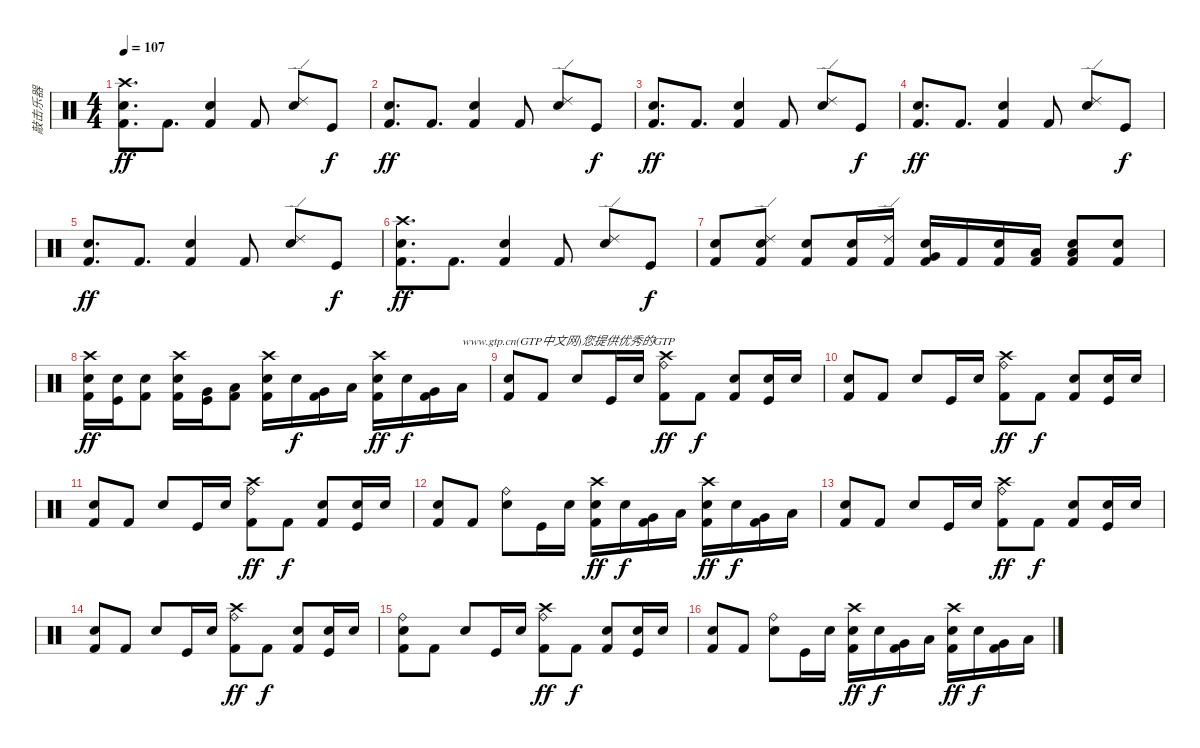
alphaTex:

\track ("敲击乐器" "敲击乐器") {instrument percussion}
\staff {score}
\articulation defaults
\ts (4 4)
\tempo 107
\clef neutral
\ks c
("Crash high (hit)" "Snare (hit) 2" "Kick (hit) 2").8{d dy ff} "Kick (hit) 2".8{d} ("Snare (hit) 2" "Kick (hit) 2").4 "Kick (hit) 2".8 ("Ride (edge) 2" "Electric Snare (hit)").8 "Kick (hit)".8{dy f} |
("Snare (hit) 2" "Kick (hit) 2").8{d dy ff} "Kick (hit) 2".8{d} ("Snare (hit) 2" "Kick (hit) 2").4 "Kick (hit) 2".8 ("Ride (edge) 2" "Electric Snare (hit)").8 "Kick (hit)".8{dy f} |
("Snare (hit) 2" "Kick (hit) 2").8{d dy ff} "Kick (hit) 2".8{d} ("Snare (hit) 2" "Kick (hit) 2").4 "Kick (hit) 2".8 ("Ride (edge) 2" "Electric Snare (hit)").8 "Kick (hit)".8{dy f} |
("Snare (hit) 2" "Kick (hit) 2").8{d dy ff} "Kick (hit) 2".8{d} ("Snare (hit) 2" "Kick (hit) 2").4 "Kick (hit) 2".8 ("Ride (edge) 2" "Electric Snare (hit)").8 "Kick (hit)".8{dy f} |
("Snare (hit) 2" "Kick (hit) 2").8{d dy ff} "Kick (hit) 2".8{d} ("Snare (hit) 2" "Kick (hit) 2").4 "Kick (hit) 2".8 ("Ride (edge) 2" "Electric Snare (hit)").8 "Kick (hit)".8{dy f} |
("Crash high (hit)" "Snare (hit) 2" "Kick (hit) 2").8{d dy ff} "Kick (hit) 2".8{d} ("Snare (hit) 2" "Kick (hit) 2").4 "Kick (hit) 2".8 ("Ride (edge) 2" "Electric Snare (hit)").8 "Kick (hit)".8{dy f} |
("Electric Snare (hit)" "Kick (hit) 2").8 ("Ride (edge) 2" "Electric Snare (hit)" "Kick (hit) 2").8 ("Electric Snare (hit)" "Kick (hit) 2").8 ("Electric Snare (hit)" "Kick (hit) 2").16 ("Ride (edge) 2" "Kick (hit) 2").16 ("Snare (hit) 2" "Very Low Tom (hit)" "Kick (hit) 2").16 "Kick (hit) 2".16 ("Snare (hit) 2" "Kick (hit) 2").16 ("Low Floor Tom (hit)" "Kick (hit) 2").16 ("Electric Snare (hit)" "Low Floor Tom (hit)" "Kick (hit) 2").8 ("Snare (hit) 2" "Kick (hit) 2").8 |
("Crash high (hit)" "Electric Snare (hit)" "Kick (hit) 2").16{dy ff} ("Snare (hit) 2" "Kick (hit)").16 ("Snare (hit) 2" "Kick (hit) 2").8 ("Crash high (hit)" "Snare (hit) 2" "Kick (hit) 2").16 ("Very Low Tom (hit)" "Kick (hit)").16 ("Low Floor Tom (hit)" "Kick (hit) 2").8 ("Crash high (hit)" "Electric Snare (hit)" "Kick (hit) 2").16 "Snare (hit) 2".16{dy f} ("Very Low Tom (hit)" "Kick (hit) 2").16 "Low Floor Tom (hit)".16 ("Crash high (hit)" "Electric Snare (hit)" "Kick (hit) 2").16{dy ff} "Snare (hit) 2".16{dy f} ("Very Low Tom (hit)" "Kick (hit) 2").16 "Low Floor Tom (hit)".16{txt "www.gtp.cn(GTP中文网)您提供优秀的GTP"} |
("Snare (hit) 2" "Kick (hit) 2").8 "Kick (hit) 2".8 "Electric Snare (hit)".8 "Kick (hit)".16 "Electric Snare (hit)".16 ("Ride (bell)" "Kick (hit) 2" "Crash high (hit)").8{dy ff} "Kick (hit) 2".8{dy f} ("Electric Snare (hit)" "Kick (hit) 2").8 ("Snare (hit) 2" "Kick (hit)").16 "Snare (hit) 2".16 |
("Snare (hit) 2" "Kick (hit) 2").8 "Kick (hit) 2".8 "Electric Snare (hit)".8 "Kick (hit)".16 "Electric Snare (hit)".16 ("Ride (bell)" "Kick (hit) 2" "Crash high (hit)").8{dy ff} "Kick (hit) 2".8{dy f} ("Electric Snare (hit)" "Kick (hit) 2").8 ("Snare (hit) 2" "Kick (hit)").16 "Snare (hit) 2".16 |
("Snare (hit) 2" "Kick (hit) 2").8 "Kick (hit) 2".8 "Electric Snare (hit)".8 "Kick (hit)".16 "Electric Snare (hit)".16 ("Ride (bell)" "Kick (hit) 2" "Crash high (hit)").8{dy ff} "Kick (hit) 2".8{dy f} ("Electric Snare (hit)" "Kick (hit) 2").8 ("Snare (hit) 2" "Kick (hit)").16 "Snare (hit) 2".16 |
("Snare (hit) 2" "Kick (hit) 2").8 "Kick (hit) 2".8 ("Ride (bell)" "Electric Snare (hit)").8 "Kick (hit)".16 "Electric Snare (hit)".16 ("Crash high (hit)" "Electric Snare (hit)" "Kick (hit) 2").16{dy ff} "Snare (hit) 2".16{dy f} ("Very Low Tom (hit)" "Kick (hit) 2").16 "Low Floor Tom (hit)".16 ("Crash high (hit)" "Electric Snare (hit)" "Kick (hit) 2").16{dy ff} "Snare (hit) 2".16{dy f} ("Very Low Tom (hit)" "Kick (hit) 2").16 "Low Floor Tom (hit)".16 |
("Snare (hit) 2" "Kick (hit) 2").8 "Kick (hit) 2".8 "Electric Snare (hit)".8 "Kick (hit)".16 "Electric Snare (hit)".16 ("Ride (bell)" "Kick (hit) 2" "Crash high (hit)").8{dy ff} "Kick (hit) 2".8{dy f} ("Electric Snare (hit)" "Kick (hit) 2").8 ("Snare (hit) 2" "Kick (hit)").16 "Snare (hit) 2".16 |
("Snare (hit) 2" "Kick (hit) 2").8 "Kick (hit) 2".8 "Electric Snare (hit)".8 "Kick (hit)".16 "Electric Snare (hit)".16 ("Ride (bell)" "Kick (hit) 2" "Crash high (hit)").8{dy ff} "Kick (hit) 2".8{dy f} ("Electric Snare (hit)" "Kick (hit) 2").8 ("Snare (hit) 2" "Kick (hit)").16 "Snare (hit) 2".16 |
("Ride (bell)" "Snare (hit) 2" "Kick (hit) 2").8 "Kick (hit) 2".8 "Electric Snare (hit)".8 "Kick (hit)".16 "Electric Snare (hit)".16 ("Ride (bell)" "Kick (hit) 2" "Crash high (hit)").8{dy ff} "Kick (hit) 2".8{dy f} ("Electric Snare (hit)" "Kick (hit) 2").8 ("Snare (hit) 2" "Kick (hit)").16 "Snare (hit) 2".16 |
("Snare (hit) 2" "Kick (hit) 2").8 "Kick (hit) 2".8 ("Ride (bell)" "Electric Snare (hit)").8 "Kick (hit)".16 "Electric Snare (hit)".16 ("Crash high (hit)" "Electric Snare (hit)" "Kick (hit) 2").16{dy ff} "Snare (hit) 2".16{dy f} ("Very Low Tom (hit)" "Kick (hit) 2").16 "Low Floor Tom (hit)".16 ("Crash high (hit)" "Electric Snare (hit)" "Kick (hit) 2").16{dy ff} "Snare (hit) 2".16{dy f} ("Very Low Tom (hit)" "Kick (hit) 2").16 "Low Floor Tom (hit)".16
